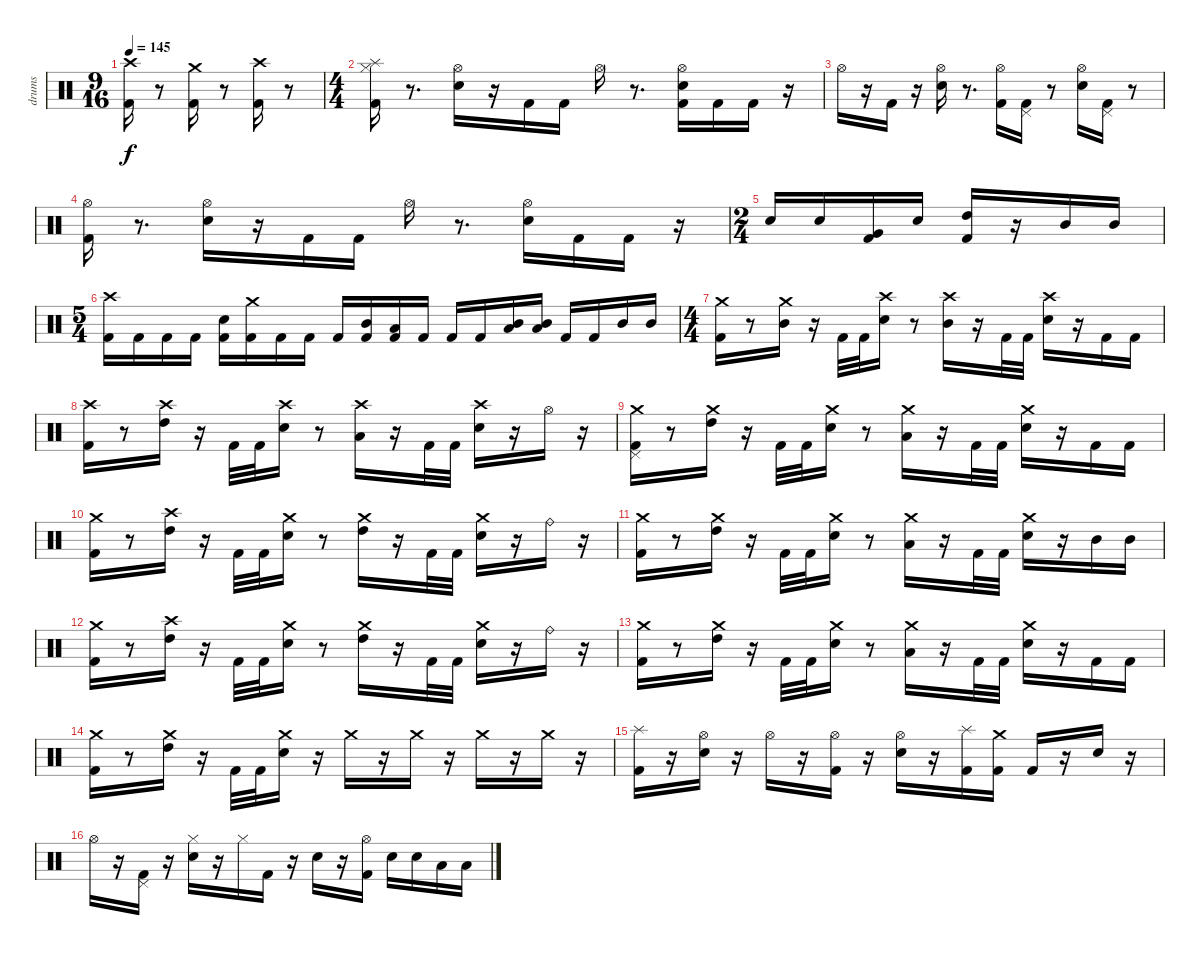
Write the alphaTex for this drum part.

\track ("drums" "drums") {instrument percussion}
\staff {score}
\articulation defaults
\ts (9 16)
\tempo 145
\clef neutral
\ks c
("Kick (hit) 2" "Crash high (hit)").16{dy f} r.8 ("Kick (hit) 2" "Crash medium (hit)").16 r.8 ("Kick (hit) 2" "Crash high (hit)").16 r.8 |
\ts (4 4)
("Kick (hit) 2" "Hi-Hat (closed)" "Splash (hit)").16 r.8{d} ("Snare (hit) 2" "Hi-Hat (open)").16 r.16 "Kick (hit) 2".16 "Kick (hit) 2".16 "Hi-Hat (open)".16 r.8{d} ("Kick (hit) 2" "Snare (hit) 2" "Hi-Hat (open)").16 "Kick (hit) 2".16 "Kick (hit) 2".16 r.16 |
"Hi-Hat (open)".16 r.16 "Kick (hit) 2".16 r.16 ("Snare (hit) 2" "Hi-Hat (open)").16 r.8{d} ("Kick (hit) 2" "Hi-Hat (open)").16 ("Kick (hit) 2" "Pedal Hi-Hat (hit)").16 r.8 ("Snare (hit) 2" "Hi-Hat (open)").16 ("Kick (hit) 2" "Pedal Hi-Hat (hit)").16 r.8 |
("Kick (hit) 2" "Hi-Hat (open)").16 r.8{d} ("Snare (hit) 2" "Hi-Hat (open)").16 r.16 "Kick (hit) 2".16 "Kick (hit) 2".16 "Hi-Hat (open)".16 r.8{d} ("Snare (hit) 2" "Hi-Hat (open)").16 "Kick (hit) 2".16 "Kick (hit) 2".16 r.16 |
\ts (2 4)
"Snare (hit) 2".16 "Snare (hit) 2".16 ("Kick (hit) 2" "Very Low Tom (hit)").16 "Snare (hit) 2".16 ("Kick (hit) 2" "High Tom (hit)").16 r.16 "Mid Tom (hit)".16 "Mid Tom (hit)".16 |
\ts (5 4)
("Kick (hit) 2" "Crash high (hit)").16 "Kick (hit) 2".16 "Kick (hit) 2".16 "Kick (hit) 2".16 ("Kick (hit) 2" "Snare (hit) 2").16 ("Kick (hit) 2" "Crash medium (hit)").16 "Kick (hit) 2".16 "Kick (hit) 2".16 "Kick (hit) 2".16 ("Kick (hit) 2" "Mid Tom (hit)").16 ("Kick (hit) 2" "Low Tom (hit)").16 "Kick (hit) 2".16 "Kick (hit) 2".16 "Kick (hit) 2".16 ("Low Tom (hit)" "Mid Tom (hit)").16 ("Low Tom (hit)" "Mid Tom (hit)").16 "Kick (hit) 2".16 "Kick (hit) 2".16 "Mid Tom (hit)".16 "Mid Tom (hit)".16 |
\ts (4 4)
("Kick (hit) 2" "Crash medium (hit)").16 r.8 ("Mid Tom (hit)" "Crash medium (hit)").16 r.16 "Kick (hit) 2".32 "Kick (hit) 2".32 ("Snare (hit) 2" "Crash high (hit)").16 r.8 ("Mid Tom (hit)" "Crash high (hit)").16 r.16 "Kick (hit) 2".32 "Kick (hit) 2".32 ("Snare (hit) 2" "Crash high (hit)").16 r.16 "Kick (hit) 2".16 "Kick (hit) 2".16 |
("Kick (hit) 2" "Crash high (hit)").16 r.8 ("High Tom (hit)" "Crash high (hit)").16 r.16 "Kick (hit) 2".32 "Kick (hit) 2".32 ("Snare (hit) 2" "Crash high (hit)").16 r.8 ("Low Tom (hit)" "Crash high (hit)").16 r.16 "Kick (hit) 2".32 "Kick (hit) 2".32 ("Snare (hit) 2" "Crash high (hit)").16 r.16 "Hi-Hat (open)".16 r.16 |
("Kick (hit) 2" "Pedal Hi-Hat (hit)" "Crash medium (hit)").16 r.8 ("High Tom (hit)" "Crash medium (hit)").16 r.16 "Kick (hit) 2".32 "Kick (hit) 2".32 ("Snare (hit) 2" "Crash medium (hit)").16 r.8 ("Low Tom (hit)" "Crash medium (hit)").16 r.16 "Kick (hit) 2".32 "Kick (hit) 2".32 ("Snare (hit) 2" "Crash medium (hit)").16 r.16 "Kick (hit) 2".16 "Kick (hit) 2".16 |
("Kick (hit) 2" "Crash medium (hit)").16 r.8 ("High Tom (hit)" "Crash high (hit)").16 r.16 "Kick (hit) 2".32 "Kick (hit) 2".32 ("Snare (hit) 2" "Crash medium (hit)").16 r.8 ("High Tom (hit)" "Crash medium (hit)").16 r.16 "Kick (hit) 2".32 "Kick (hit) 2".32 ("Snare (hit) 2" "Crash medium (hit)").16 r.16 "Ride (bell)".16 r.16 |
("Kick (hit) 2" "Crash medium (hit)").16 r.8 ("High Tom (hit)" "Crash medium (hit)").16 r.16 "Kick (hit) 2".32 "Kick (hit) 2".32 ("Snare (hit) 2" "Crash medium (hit)").16 r.8 ("Low Tom (hit)" "Crash medium (hit)").16 r.16 "Kick (hit) 2".32 "Kick (hit) 2".32 ("Snare (hit) 2" "Crash medium (hit)").16 r.16 "Mid Tom (hit)".16 "Mid Tom (hit)".16 |
("Kick (hit) 2" "Crash medium (hit)").16 r.8 ("High Tom (hit)" "Crash high (hit)").16 r.16 "Kick (hit) 2".32 "Kick (hit) 2".32 ("Snare (hit) 2" "Crash medium (hit)").16 r.8 ("High Tom (hit)" "Crash medium (hit)").16 r.16 "Kick (hit) 2".32 "Kick (hit) 2".32 ("Snare (hit) 2" "Crash medium (hit)").16 r.16 "Ride (bell)".16 r.16 |
("Kick (hit) 2" "Crash medium (hit)").16 r.8 ("High Tom (hit)" "Crash medium (hit)").16 r.16 "Kick (hit) 2".32 "Kick (hit) 2".32 ("Snare (hit) 2" "Crash medium (hit)").16 r.8 ("Low Tom (hit)" "Crash medium (hit)").16 r.16 "Kick (hit) 2".32 "Kick (hit) 2".32 ("Snare (hit) 2" "Crash medium (hit)").16 r.16 "Kick (hit) 2".16 "Kick (hit) 2".16 |
("Kick (hit) 2" "Crash medium (hit)").16 r.8 ("High Tom (hit)" "Crash medium (hit)").16 r.16 "Kick (hit) 2".32 "Kick (hit) 2".32 ("Snare (hit) 2" "Crash medium (hit)").16 r.16 "Crash medium (hit)".16 r.16 "Crash medium (hit)".16 r.16 "Crash medium (hit)".16 r.16 "Crash medium (hit)".16 r.16 |
("Kick (hit) 2" "Splash (hit)").16 r.16 ("Snare (hit) 2" "Hi-Hat (open)").16 r.16 "Hi-Hat (open)".16 r.16 ("Kick (hit) 2" "Hi-Hat (open)").16 r.16 ("Snare (hit) 2" "Hi-Hat (open)").16 r.16 ("Kick (hit) 2" "Splash (hit)").16 ("Kick (hit) 2" "Crash medium (hit)").16 "Kick (hit) 2".16 r.16 "Snare (hit) 2".16 r.16 |
"Hi-Hat (open)".16 r.16 ("Kick (hit) 2" "Pedal Hi-Hat (hit)").16 r.16 ("Snare (hit) 2" "Hi-Hat (closed)").16 r.16 "Hi-Hat (closed)".16 "Kick (hit) 2".16 r.16 "Snare (hit) 2".16 r.16 ("Kick (hit) 2" "Hi-Hat (open)").16 "Snare (hit) 2".16 "Snare (hit) 2".16 "Low Tom (hit)".16 "Low Tom (hit)".16
